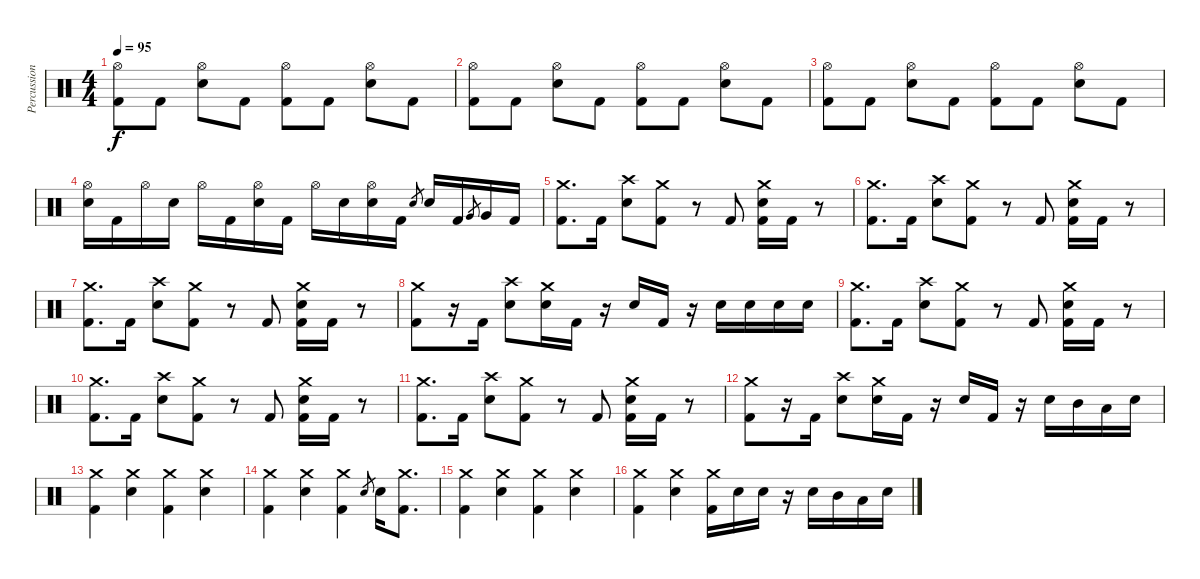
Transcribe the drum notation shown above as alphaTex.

\track ("Percussion" "Percussion") {instrument percussion}
\staff {score}
\articulation defaults
\ts (4 4)
\tempo 95
\clef neutral
\ks c
("Hi-Hat (open)" "Kick (hit) 2").8{dy f} "Kick (hit) 2".8 ("Hi-Hat (open)" "Electric Snare (hit)").8 "Kick (hit) 2".8 ("Hi-Hat (open)" "Kick (hit) 2").8 "Kick (hit) 2".8 ("Hi-Hat (open)" "Electric Snare (hit)").8 "Kick (hit) 2".8 |
("Hi-Hat (open)" "Kick (hit) 2").8 "Kick (hit) 2".8 ("Hi-Hat (open)" "Electric Snare (hit)").8 "Kick (hit) 2".8 ("Hi-Hat (open)" "Kick (hit) 2").8 "Kick (hit) 2".8 ("Hi-Hat (open)" "Electric Snare (hit)").8 "Kick (hit) 2".8 |
("Hi-Hat (open)" "Kick (hit) 2").8 "Kick (hit) 2".8 ("Hi-Hat (open)" "Electric Snare (hit)").8 "Kick (hit) 2".8 ("Hi-Hat (open)" "Kick (hit) 2").8 "Kick (hit) 2".8 ("Hi-Hat (open)" "Electric Snare (hit)").8 "Kick (hit) 2".8 |
("Hi-Hat (open)" "Electric Snare (hit)").16 "Kick (hit) 2".16 "Hi-Hat (open)".16 "Electric Snare (hit)".16 "Hi-Hat (open)".16 "Kick (hit) 2".16 ("Hi-Hat (open)" "Electric Snare (hit)").16 "Kick (hit) 2".16 "Hi-Hat (open)".16 "Electric Snare (hit)".16 ("Hi-Hat (open)" "Electric Snare (hit)").16 "Kick (hit) 2".16 "Electric Snare (hit)".8{gr} "Electric Snare (hit)".16 "Kick (hit) 2".16 "Very Low Tom (hit)".8{gr} "Very Low Tom (hit)".16 "Kick (hit) 2".16 |
("Crash medium (hit)" "Kick (hit) 2").8{d} "Kick (hit) 2".16 ("Crash high (hit)" "Electric Snare (hit)").8 ("Crash medium (hit)" "Kick (hit) 2").8 r.8 "Kick (hit) 2".8 ("Crash medium (hit)" "Electric Snare (hit)" "Kick (hit) 2").16 "Kick (hit) 2".16 r.8 |
("Crash medium (hit)" "Kick (hit) 2").8{d} "Kick (hit) 2".16 ("Crash high (hit)" "Electric Snare (hit)").8 ("Crash medium (hit)" "Kick (hit) 2").8 r.8 "Kick (hit) 2".8 ("Crash medium (hit)" "Electric Snare (hit)" "Kick (hit) 2").16 "Kick (hit) 2".16 r.8 |
("Crash medium (hit)" "Kick (hit) 2").8{d} "Kick (hit) 2".16 ("Crash high (hit)" "Electric Snare (hit)").8 ("Crash medium (hit)" "Kick (hit) 2").8 r.8 "Kick (hit) 2".8 ("Crash medium (hit)" "Electric Snare (hit)" "Kick (hit) 2").16 "Kick (hit) 2".16 r.8 |
("Crash medium (hit)" "Kick (hit) 2").8 r.16 "Kick (hit) 2".16 ("Crash high (hit)" "Electric Snare (hit)").8 ("Crash medium (hit)" "Electric Snare (hit)").16 "Kick (hit) 2".16 r.16 "Electric Snare (hit)".16 "Kick (hit) 2".16 r.16 "Electric Snare (hit)".16 "Electric Snare (hit)".16 "Electric Snare (hit)".16 "Electric Snare (hit)".16 |
("Crash medium (hit)" "Kick (hit) 2").8{d} "Kick (hit) 2".16 ("Crash high (hit)" "Electric Snare (hit)").8 ("Crash medium (hit)" "Kick (hit) 2").8 r.8 "Kick (hit) 2".8 ("Crash medium (hit)" "Electric Snare (hit)" "Kick (hit) 2").16 "Kick (hit) 2".16 r.8 |
("Crash medium (hit)" "Kick (hit) 2").8{d} "Kick (hit) 2".16 ("Crash high (hit)" "Electric Snare (hit)").8 ("Crash medium (hit)" "Kick (hit) 2").8 r.8 "Kick (hit) 2".8 ("Crash medium (hit)" "Electric Snare (hit)" "Kick (hit) 2").16 "Kick (hit) 2".16 r.8 |
("Crash medium (hit)" "Kick (hit) 2").8{d} "Kick (hit) 2".16 ("Crash high (hit)" "Electric Snare (hit)").8 ("Crash medium (hit)" "Kick (hit) 2").8 r.8 "Kick (hit) 2".8 ("Crash medium (hit)" "Electric Snare (hit)" "Kick (hit) 2").16 "Kick (hit) 2".16 r.8 |
("Crash medium (hit)" "Kick (hit) 2").8 r.16 "Kick (hit) 2".16 ("Crash high (hit)" "Electric Snare (hit)").8 ("Crash medium (hit)" "Electric Snare (hit)").16 "Kick (hit) 2".16 r.16 "Electric Snare (hit)".16 "Kick (hit) 2".16 r.16 "Electric Snare (hit)".16 "Mid Tom (hit)".16 "Low Tom (hit)".16 "Electric Snare (hit)".16 |
("Crash medium (hit)" "Kick (hit) 2").4 ("Crash medium (hit)" "Electric Snare (hit)").4 ("Crash medium (hit)" "Kick (hit) 2").4 ("Crash medium (hit)" "Electric Snare (hit)").4 |
("Crash medium (hit)" "Kick (hit) 2").4 ("Crash medium (hit)" "Electric Snare (hit)").4 ("Crash medium (hit)" "Kick (hit) 2").4 "Electric Snare (hit)".8{gr} "Electric Snare (hit)".16 ("Crash medium (hit)" "Kick (hit) 2").8{d} |
("Crash medium (hit)" "Kick (hit) 2").4 ("Crash medium (hit)" "Electric Snare (hit)").4 ("Crash medium (hit)" "Kick (hit) 2").4 ("Crash medium (hit)" "Electric Snare (hit)").4 |
("Crash medium (hit)" "Kick (hit) 2").4 ("Crash medium (hit)" "Electric Snare (hit)").4 ("Crash medium (hit)" "Kick (hit) 2").16 "Electric Snare (hit)".16 "Electric Snare (hit)".16 r.16 "Electric Snare (hit)".16 "Mid Tom (hit)".16 "Low Tom (hit)".16 "Electric Snare (hit)".16
